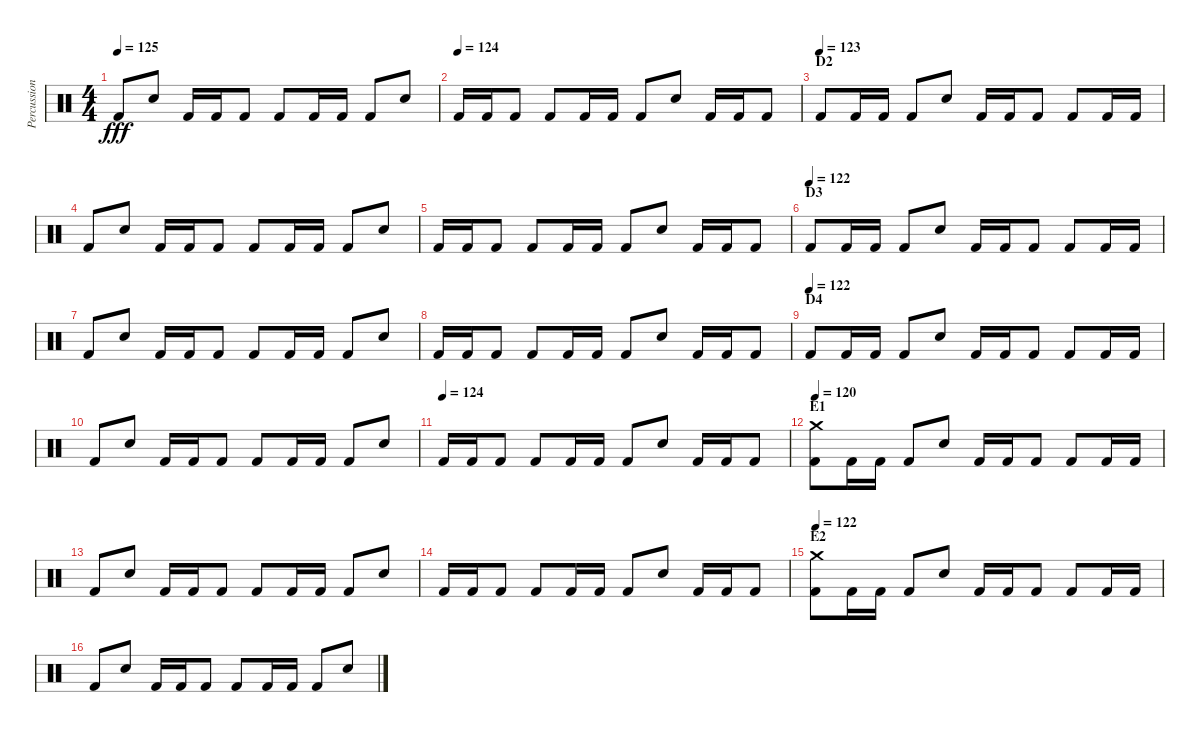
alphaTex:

\track ("Percussion" "Percussion") {instrument percussion}
\staff {score}
\articulation defaults
\ts (4 4)
\tempo 125
\clef neutral
\ks c "Kick (hit) 2".8{dy fff} "Electric Snare (hit)".8 "Kick (hit) 2".16 "Kick (hit) 2".16 "Kick (hit) 2".8 "Kick (hit) 2".8 "Kick (hit) 2".16 "Kick (hit) 2".16 "Kick (hit) 2".8 "Electric Snare (hit)".8
|
\tempo (124)
"Kick (hit) 2".16 "Kick (hit) 2".16 "Kick (hit) 2".8 "Kick (hit) 2".8 "Kick (hit) 2".16 "Kick (hit) 2".16 "Kick (hit) 2".8 "Electric Snare (hit)".8 "Kick (hit) 2".16 "Kick (hit) 2".16 "Kick (hit) 2".8 |
\section ("" "D2")
\tempo (123)
"Kick (hit) 2".8 "Kick (hit) 2".16 "Kick (hit) 2".16 "Kick (hit) 2".8 "Electric Snare (hit)".8 "Kick (hit) 2".16 "Kick (hit) 2".16 "Kick (hit) 2".8 "Kick (hit) 2".8 "Kick (hit) 2".16 "Kick (hit) 2".16 |
"Kick (hit) 2".8 "Electric Snare (hit)".8 "Kick (hit) 2".16 "Kick (hit) 2".16 "Kick (hit) 2".8 "Kick (hit) 2".8 "Kick (hit) 2".16 "Kick (hit) 2".16 "Kick (hit) 2".8 "Electric Snare (hit)".8 |
"Kick (hit) 2".16 "Kick (hit) 2".16 "Kick (hit) 2".8 "Kick (hit) 2".8 "Kick (hit) 2".16 "Kick (hit) 2".16 "Kick (hit) 2".8 "Electric Snare (hit)".8 "Kick (hit) 2".16 "Kick (hit) 2".16 "Kick (hit) 2".8 |
\section ("" "D3")
\tempo (122)
"Kick (hit) 2".8 "Kick (hit) 2".16 "Kick (hit) 2".16 "Kick (hit) 2".8 "Electric Snare (hit)".8 "Kick (hit) 2".16 "Kick (hit) 2".16 "Kick (hit) 2".8 "Kick (hit) 2".8 "Kick (hit) 2".16 "Kick (hit) 2".16 |
"Kick (hit) 2".8 "Electric Snare (hit)".8 "Kick (hit) 2".16 "Kick (hit) 2".16 "Kick (hit) 2".8 "Kick (hit) 2".8 "Kick (hit) 2".16 "Kick (hit) 2".16 "Kick (hit) 2".8 "Electric Snare (hit)".8 |
"Kick (hit) 2".16 "Kick (hit) 2".16 "Kick (hit) 2".8 "Kick (hit) 2".8 "Kick (hit) 2".16 "Kick (hit) 2".16 "Kick (hit) 2".8 "Electric Snare (hit)".8 "Kick (hit) 2".16 "Kick (hit) 2".16 "Kick (hit) 2".8 |
\section ("" "D4")
\tempo (122)
"Kick (hit) 2".8 "Kick (hit) 2".16 "Kick (hit) 2".16 "Kick (hit) 2".8 "Electric Snare (hit)".8 "Kick (hit) 2".16 "Kick (hit) 2".16 "Kick (hit) 2".8 "Kick (hit) 2".8 "Kick (hit) 2".16 "Kick (hit) 2".16 |
"Kick (hit) 2".8 "Electric Snare (hit)".8 "Kick (hit) 2".16 "Kick (hit) 2".16 "Kick (hit) 2".8 "Kick (hit) 2".8 "Kick (hit) 2".16 "Kick (hit) 2".16 "Kick (hit) 2".8 "Electric Snare (hit)".8 |
\tempo (124)
"Kick (hit) 2".16 "Kick (hit) 2".16 "Kick (hit) 2".8 "Kick (hit) 2".8 "Kick (hit) 2".16 "Kick (hit) 2".16 "Kick (hit) 2".8 "Electric Snare (hit)".8 "Kick (hit) 2".16 "Kick (hit) 2".16 "Kick (hit) 2".8 |
\section ("" "E1")
\tempo 120
("Kick (hit) 2" "Crash medium (hit)").8 "Kick (hit) 2".16 "Kick (hit) 2".16 "Kick (hit) 2".8 "Electric Snare (hit)".8 "Kick (hit) 2".16 "Kick (hit) 2".16 "Kick (hit) 2".8 "Kick (hit) 2".8 "Kick (hit) 2".16 "Kick (hit) 2".16 |
"Kick (hit) 2".8 "Electric Snare (hit)".8 "Kick (hit) 2".16 "Kick (hit) 2".16 "Kick (hit) 2".8 "Kick (hit) 2".8 "Kick (hit) 2".16 "Kick (hit) 2".16 "Kick (hit) 2".8 "Electric Snare (hit)".8 |
"Kick (hit) 2".16 "Kick (hit) 2".16 "Kick (hit) 2".8 "Kick (hit) 2".8 "Kick (hit) 2".16 "Kick (hit) 2".16 "Kick (hit) 2".8 "Electric Snare (hit)".8 "Kick (hit) 2".16 "Kick (hit) 2".16 "Kick (hit) 2".8 |
\section ("" "E2")
\tempo 122
("Kick (hit) 2" "Crash medium (hit)").8 "Kick (hit) 2".16 "Kick (hit) 2".16 "Kick (hit) 2".8 "Electric Snare (hit)".8 "Kick (hit) 2".16 "Kick (hit) 2".16 "Kick (hit) 2".8 "Kick (hit) 2".8 "Kick (hit) 2".16 "Kick (hit) 2".16 |
"Kick (hit) 2".8 "Electric Snare (hit)".8 "Kick (hit) 2".16 "Kick (hit) 2".16 "Kick (hit) 2".8 "Kick (hit) 2".8 "Kick (hit) 2".16 "Kick (hit) 2".16 "Kick (hit) 2".8 "Electric Snare (hit)".8
